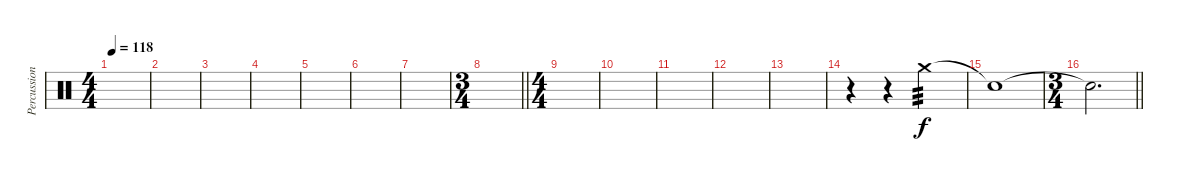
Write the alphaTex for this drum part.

\track ("Percussion" "Percussion") {instrument percussion}
\staff {score}
\articulation defaults
\ts (4 4)
\tempo 118
\tempo 101
\tempo 118
\clef neutral
\ks c
|
|
|
|
|
|
|
\ts (3 4)
\barLineRight lightlight
|
\ts (4 4)
\section ("" "")
|
|
|
|
|
r.4 r.4 "Crash medium (hit)".2{tp 3 volume 12} |
"Snare (hit)"{t}.1 |
\ts (3 4)
\barLineRight lightlight "Snare (hit)"{t}.2{d}
